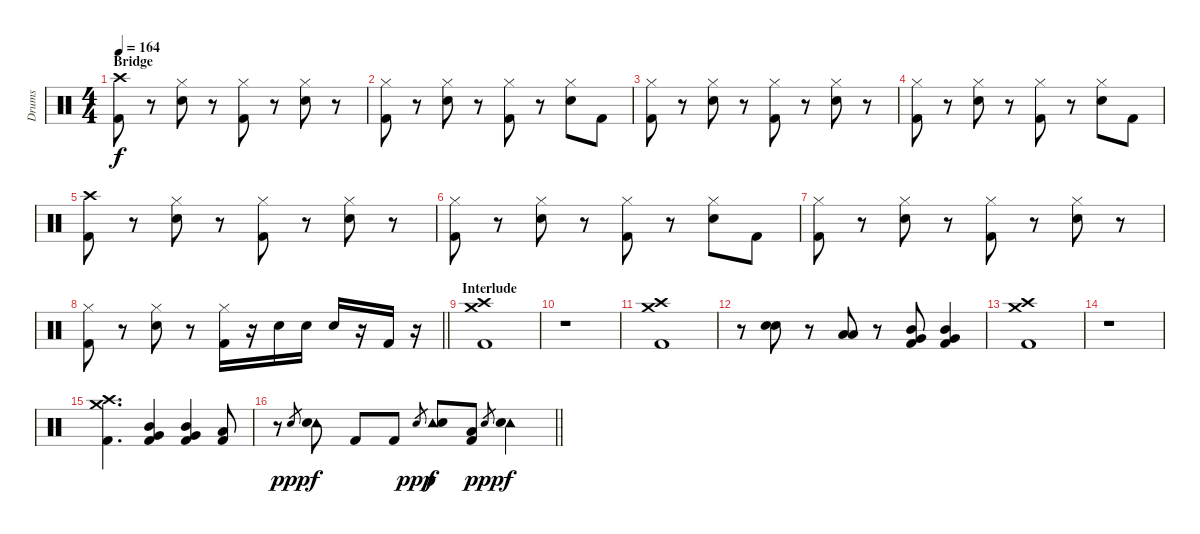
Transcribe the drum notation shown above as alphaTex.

\track ("Drums" "Drums") {instrument percussion}
\staff {score}
\articulation defaults
\ts (4 4)
\section ("" "Bridge")
\tempo 164
\clef neutral
\ks c
("Crash high (hit)" "Kick (hit) 2").8{dy f} r.8 ("Hi-Hat (closed)" "Snare (hit) 2").8 r.8 ("Hi-Hat (closed)" "Kick (hit) 2").8 r.8 ("Hi-Hat (closed)" "Snare (hit) 2").8 r.8 |
("Hi-Hat (closed)" "Kick (hit) 2").8 r.8 ("Hi-Hat (closed)" "Snare (hit) 2").8 r.8 ("Hi-Hat (closed)" "Kick (hit) 2").8 r.8 ("Hi-Hat (closed)" "Snare (hit) 2").8 "Kick (hit) 2".8 |
("Hi-Hat (closed)" "Kick (hit) 2").8 r.8 ("Hi-Hat (closed)" "Snare (hit) 2").8 r.8 ("Hi-Hat (closed)" "Kick (hit) 2").8 r.8 ("Hi-Hat (closed)" "Snare (hit) 2").8 r.8 |
("Hi-Hat (closed)" "Kick (hit) 2").8 r.8 ("Hi-Hat (closed)" "Snare (hit) 2").8 r.8 ("Hi-Hat (closed)" "Kick (hit) 2").8 r.8 ("Hi-Hat (closed)" "Snare (hit) 2").8 "Kick (hit) 2".8 |
("Crash high (hit)" "Kick (hit) 2").8 r.8 ("Hi-Hat (closed)" "Snare (hit) 2").8 r.8 ("Hi-Hat (closed)" "Kick (hit) 2").8 r.8 ("Hi-Hat (closed)" "Snare (hit) 2").8 r.8 |
("Hi-Hat (closed)" "Kick (hit) 2").8 r.8 ("Hi-Hat (closed)" "Snare (hit) 2").8 r.8 ("Hi-Hat (closed)" "Kick (hit) 2").8 r.8 ("Hi-Hat (closed)" "Snare (hit) 2").8 "Kick (hit) 2".8 |
("Hi-Hat (closed)" "Kick (hit) 2").8 r.8 ("Hi-Hat (closed)" "Snare (hit) 2").8 r.8 ("Hi-Hat (closed)" "Kick (hit) 2").8 r.8 ("Hi-Hat (closed)" "Snare (hit) 2").8 r.8 |
\barLineRight lightlight
("Hi-Hat (closed)" "Kick (hit) 2").8 r.8 ("Hi-Hat (closed)" "Snare (hit) 2").8 r.8 ("Hi-Hat (closed)" "Kick (hit) 2").16 r.16 "Snare (hit) 2".16 "Snare (hit) 2".16 "Snare (hit) 2".16 r.16 "Kick (hit) 2".16 r.16 |
\section ("" "Interlude")
("Crash high (hit)" "Crash medium (hit)" "Kick (hit) 2").1 |
r.1 |
("Crash high (hit)" "Crash medium (hit)" "Kick (hit) 2").1 |
r.8 ("Snare (hit) 2" "Snare (hit) 2").8 r.8 ("Low Tom (hit)" "Low Tom (hit)").8 r.8 ("Mid Tom (hit)" "Very Low Tom (hit)" "Kick (hit) 2").8 ("Mid Tom (hit)" "Very Low Tom (hit)" "Kick (hit) 2").4 |
("Crash high (hit)" "Crash medium (hit)" "Kick (hit) 2").1 |
r.1 |
("Crash high (hit)" "Crash medium (hit)" "Kick (hit) 2").4{d} ("Mid Tom (hit)" "Very Low Tom (hit)" "Kick (hit) 2").4 ("Mid Tom (hit)" "Very Low Tom (hit)" "Kick (hit) 2").4 ("Low Tom (hit)" "Kick (hit) 2").8 |
\barLineRight lightlight
r.8 "Snare (hit) 2".8{gr dy ppp} ("Tambourine (hit)" "Snare (hit) 2").8{dy f} "Kick (hit) 2".8 "Kick (hit) 2".8 "Snare (hit) 2".8{gr dy ppp} ("Tambourine (hit)" "Snare (hit) 2").8{dy f} ("Low Tom (hit)" "Kick (hit) 2").8 "Snare (hit) 2".8{gr dy ppp} ("Tambourine (hit)" "Snare (hit) 2").4{dy f}
